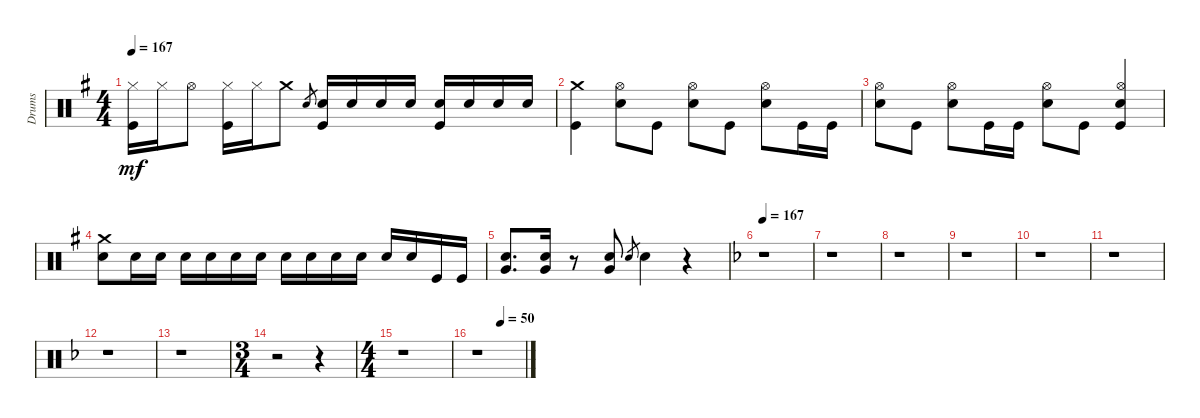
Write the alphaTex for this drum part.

\track ("Drums" "Drums") {instrument percussion}
\staff {score}
\articulation defaults
\ts (4 4)
\tempo 167
\clef neutral
\ks eminor
("Hi-Hat (closed)" "Kick (hit)").16{dy mf} "Hi-Hat (closed)".16 "Hi-Hat (open)".8 ("Kick (hit)" "Hi-Hat (closed)").16 "Hi-Hat (closed)".16 "Crash medium (hit)".8 "Snare (hit)".8{gr} ("Snare (hit) 2" "Kick (hit)").16 "Snare (hit) 2".16 "Snare (hit) 2".16 "Snare (hit) 2".16 ("Snare (hit) 2" "Kick (hit)").16 "Snare (hit) 2".16 "Snare (hit) 2".16 "Snare (hit) 2".16 |
("Kick (hit)" "Crash medium (hit)").4 ("Hi-Hat (open)" "Snare (hit) 2").8 "Kick (hit)".8 ("Snare (hit) 2" "Hi-Hat (open)").8 "Kick (hit)".8 ("Hi-Hat (open)" "Snare (hit) 2").8 "Kick (hit)".16 "Kick (hit)".16 |
("Snare (hit) 2" "Hi-Hat (open)").8 "Kick (hit)".8 ("Snare (hit) 2" "Hi-Hat (open)").8 "Kick (hit)".16 "Kick (hit)".16 ("Hi-Hat (open)" "Snare (hit) 2").8 "Kick (hit)".8 ("Kick (hit)" "Snare (hit) 2" "Hi-Hat (open)").4 |
("Crash medium (hit)" "Snare (hit) 2").8 "Snare (hit) 2".16 "Snare (hit) 2".16 "Snare (hit) 2".16 "Snare (hit) 2".16 "Snare (hit) 2".16 "Snare (hit) 2".16 "Snare (hit) 2".16 "Snare (hit) 2".16 "Snare (hit) 2".16 "Snare (hit) 2".16 "Snare (hit) 2".16 "Snare (hit) 2".16 "Kick (hit)".16 "Kick (hit)".16 |
("Snare (hit) 2" "Very Low Tom (hit)").8{d} ("Very Low Tom (hit)" "Snare (hit) 2").16 r.8 ("Snare (hit) 2" "Very Low Tom (hit)").8 "Snare (hit)".8{gr} "Snare (hit) 2".4 r.4 |
\tempo 167
\ks dminor
r.1 |
r.1 |
r.1 |
r.1 |
r.1 |
r.1 |
r.1 |
r.1 |
\ts (3 4)
r.2 r.4 |
\ts (4 4)
r.1 |
\tempo (50 0.5)
r.1
